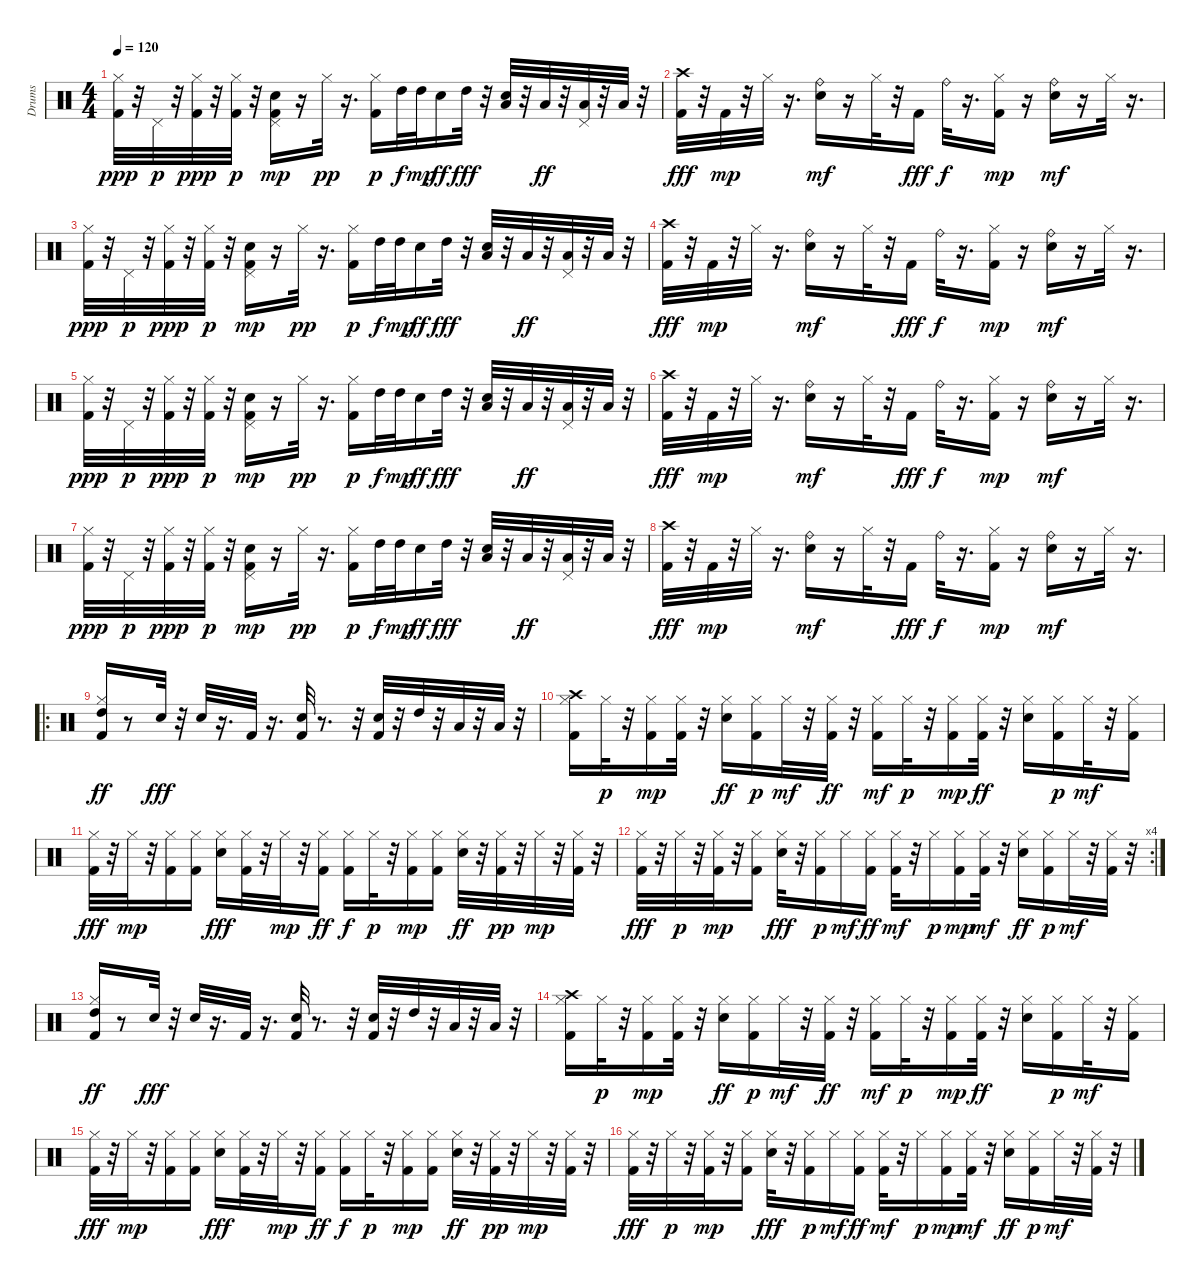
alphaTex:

\track ("Drums" "Drums") {instrument percussion}
\staff {score}
\articulation defaults
\ts (4 4)
\tempo 120
\clef neutral
\ks c
("Kick (hit) 2" "Hi-Hat (closed)").32{dy ppp} r.32 "Pedal Hi-Hat (hit)".32{dy p} r.32 ("Kick (hit) 2" "Hi-Hat (closed)").32{dy ppp} r.32 ("Kick (hit) 2" "Hi-Hat (closed)").32{dy p} r.32 ("Kick (hit) 2" "Snare (hit) 2" "Pedal Hi-Hat (hit)").16{dy mp} r.16 "Hi-Hat (closed)".32{dy pp} r.16{d} ("Kick (hit) 2" "Hi-Hat (closed)").16{dy p} "High Tom (hit)".32{dy f} "High Tom (hit)".32{dy mp} "Snare (hit) 2".16{dy ff} "High Tom (hit)".32{dy fff} r.32 ("Low Tom (hit)" "Snare (hit) 2").32 r.32 "Low Tom (hit)".32{dy ff} r.32 ("Pedal Hi-Hat (hit)" "Low Floor Tom (hit)").32 r.32 "Low Floor Tom (hit)".32 r.32 |
("Kick (hit) 2" "Crash high (hit)").32{dy fff} r.32 "Kick (hit) 2".32{dy mp} r.32 "Hi-Hat (closed)".32 r.16{d} ("Snare (hit) 2" "Ride (bell)").16{dy mf} r.16 "Hi-Hat (closed)".32 r.32 "Kick (hit) 2".16{dy fff} "Ride (bell)".32{dy f} r.16{d} ("Kick (hit) 2" "Hi-Hat (closed)").16{dy mp} r.16 ("Snare (hit) 2" "Ride (bell)").16{dy mf} r.16 "Hi-Hat (closed)".32 r.16{d} |
("Kick (hit) 2" "Hi-Hat (closed)").32{dy ppp} r.32 "Pedal Hi-Hat (hit)".32{dy p} r.32 ("Kick (hit) 2" "Hi-Hat (closed)").32{dy ppp} r.32 ("Kick (hit) 2" "Hi-Hat (closed)").32{dy p} r.32 ("Kick (hit) 2" "Snare (hit) 2" "Pedal Hi-Hat (hit)").16{dy mp} r.16 "Hi-Hat (closed)".32{dy pp} r.16{d} ("Kick (hit) 2" "Hi-Hat (closed)").16{dy p} "High Tom (hit)".32{dy f} "High Tom (hit)".32{dy mp} "Snare (hit) 2".16{dy ff} "High Tom (hit)".32{dy fff} r.32 ("Low Tom (hit)" "Snare (hit) 2").32 r.32 "Low Tom (hit)".32{dy ff} r.32 ("Pedal Hi-Hat (hit)" "Low Floor Tom (hit)").32 r.32 "Low Floor Tom (hit)".32 r.32 |
("Kick (hit) 2" "Crash high (hit)").32{dy fff} r.32 "Kick (hit) 2".32{dy mp} r.32 "Hi-Hat (closed)".32 r.16{d} ("Snare (hit) 2" "Ride (bell)").16{dy mf} r.16 "Hi-Hat (closed)".32 r.32 "Kick (hit) 2".16{dy fff} "Ride (bell)".32{dy f} r.16{d} ("Kick (hit) 2" "Hi-Hat (closed)").16{dy mp} r.16 ("Snare (hit) 2" "Ride (bell)").16{dy mf} r.16 "Hi-Hat (closed)".32 r.16{d} |
("Kick (hit) 2" "Hi-Hat (closed)").32{dy ppp} r.32 "Pedal Hi-Hat (hit)".32{dy p} r.32 ("Kick (hit) 2" "Hi-Hat (closed)").32{dy ppp} r.32 ("Kick (hit) 2" "Hi-Hat (closed)").32{dy p} r.32 ("Kick (hit) 2" "Snare (hit) 2" "Pedal Hi-Hat (hit)").16{dy mp} r.16 "Hi-Hat (closed)".32{dy pp} r.16{d} ("Kick (hit) 2" "Hi-Hat (closed)").16{dy p} "High Tom (hit)".32{dy f} "High Tom (hit)".32{dy mp} "Snare (hit) 2".16{dy ff} "High Tom (hit)".32{dy fff} r.32 ("Low Tom (hit)" "Snare (hit) 2").32 r.32 "Low Tom (hit)".32{dy ff} r.32 ("Pedal Hi-Hat (hit)" "Low Floor Tom (hit)").32 r.32 "Low Floor Tom (hit)".32 r.32 |
("Kick (hit) 2" "Crash high (hit)").32{dy fff} r.32 "Kick (hit) 2".32{dy mp} r.32 "Hi-Hat (closed)".32 r.16{d} ("Snare (hit) 2" "Ride (bell)").16{dy mf} r.16 "Hi-Hat (closed)".32 r.32 "Kick (hit) 2".16{dy fff} "Ride (bell)".32{dy f} r.16{d} ("Kick (hit) 2" "Hi-Hat (closed)").16{dy mp} r.16 ("Snare (hit) 2" "Ride (bell)").16{dy mf} r.16 "Hi-Hat (closed)".32 r.16{d} |
("Kick (hit) 2" "Hi-Hat (closed)").32{dy ppp} r.32 "Pedal Hi-Hat (hit)".32{dy p} r.32 ("Kick (hit) 2" "Hi-Hat (closed)").32{dy ppp} r.32 ("Kick (hit) 2" "Hi-Hat (closed)").32{dy p} r.32 ("Kick (hit) 2" "Snare (hit) 2" "Pedal Hi-Hat (hit)").16{dy mp} r.16 "Hi-Hat (closed)".32{dy pp} r.16{d} ("Kick (hit) 2" "Hi-Hat (closed)").16{dy p} "High Tom (hit)".32{dy f} "High Tom (hit)".32{dy mp} "Snare (hit) 2".16{dy ff} "High Tom (hit)".32{dy fff} r.32 ("Low Tom (hit)" "Snare (hit) 2").32 r.32 "Low Tom (hit)".32{dy ff} r.32 ("Pedal Hi-Hat (hit)" "Low Floor Tom (hit)").32 r.32 "Low Floor Tom (hit)".32 r.32 |
("Kick (hit) 2" "Crash high (hit)").32{dy fff} r.32 "Kick (hit) 2".32{dy mp} r.32 "Hi-Hat (closed)".32 r.16{d} ("Snare (hit) 2" "Ride (bell)").16{dy mf} r.16 "Hi-Hat (closed)".32 r.32 "Kick (hit) 2".16{dy fff} "Ride (bell)".32{dy f} r.16{d} ("Kick (hit) 2" "Hi-Hat (closed)").16{dy mp} r.16 ("Snare (hit) 2" "Ride (bell)").16{dy mf} r.16 "Hi-Hat (closed)".32 r.16{d} |
\ro
("High Tom (hit)" "Kick (hit) 2" "Hi-Hat (closed)").16{dy ff} r.8 "Snare (hit) 2".32{dy fff} r.32 "Snare (hit) 2".32 r.16{d} "Kick (hit) 2".32 r.16{d} ("Kick (hit) 2" "Snare (hit) 2").32 r.8{d} r.32 ("Kick (hit) 2" "Snare (hit) 2").32 r.32 "High Tom (hit)".32 r.32 "Low Tom (hit)".32 r.32 "Low Floor Tom (hit)".32 r.32 |
("Kick (hit) 2" "Hi-Hat (closed)" "Crash high (hit)").16 "Hi-Hat (closed)".32{dy p} r.32 ("Kick (hit) 2" "Hi-Hat (closed)").16{dy mp} ("Kick (hit) 2" "Hi-Hat (closed)").32 r.32 ("Hi-Hat (closed)" "Snare (hit) 2").16{dy ff} ("Kick (hit) 2" "Hi-Hat (closed)").16{dy p} "Hi-Hat (closed)".32{dy mf} r.32 ("Kick (hit) 2" "Hi-Hat (closed)").32{dy ff} r.32 ("Kick (hit) 2" "Hi-Hat (closed)").16{dy mf} "Hi-Hat (closed)".32{dy p} r.32 ("Kick (hit) 2" "Hi-Hat (closed)").16{dy mp} ("Kick (hit) 2" "Hi-Hat (closed)").32{dy ff} r.32 ("Hi-Hat (closed)" "Snare (hit) 2").16 ("Kick (hit) 2" "Hi-Hat (closed)").16{dy p} "Hi-Hat (closed)".32{dy mf} r.32 ("Kick (hit) 2" "Hi-Hat (closed)").16 |
("Hi-Hat (closed)" "Kick (hit) 2").32{dy fff} r.32 "Hi-Hat (closed)".32{dy mp} r.32 ("Kick (hit) 2" "Hi-Hat (closed)").16 ("Kick (hit) 2" "Hi-Hat (closed)").16 ("Hi-Hat (closed)" "Snare (hit) 2").16{dy fff} ("Hi-Hat (closed)" "Kick (hit) 2").32 r.32 "Hi-Hat (closed)".32{dy mp} r.32 ("Kick (hit) 2" "Hi-Hat (closed)").16{dy ff} ("Hi-Hat (closed)" "Kick (hit) 2").16{dy f} "Hi-Hat (closed)".32{dy p} r.32 ("Kick (hit) 2" "Hi-Hat (closed)").16{dy mp} ("Kick (hit) 2" "Hi-Hat (closed)").16 ("Hi-Hat (closed)" "Snare (hit) 2").32{dy ff} r.32 ("Kick (hit) 2" "Hi-Hat (closed)").32{dy pp} r.32 "Hi-Hat (closed)".32{dy mp} r.32 ("Kick (hit) 2" "Hi-Hat (closed)").32 r.32 |
\rc 4
("Hi-Hat (closed)" "Kick (hit) 2").32{dy fff} r.32 "Hi-Hat (closed)".32{dy p} r.32 ("Kick (hit) 2" "Hi-Hat (closed)").32{dy mp} r.32 ("Kick (hit) 2" "Hi-Hat (closed)").16 ("Hi-Hat (closed)" "Snare (hit) 2").32{dy fff} r.32 ("Kick (hit) 2" "Hi-Hat (closed)").16{dy p} "Hi-Hat (closed)".16{dy mf} ("Hi-Hat (closed)" "Kick (hit) 2").16{dy ff} ("Kick (hit) 2" "Hi-Hat (closed)").32{dy mf} r.32 "Hi-Hat (closed)".16{dy p} ("Kick (hit) 2" "Hi-Hat (closed)").16{dy mp} ("Hi-Hat (closed)" "Kick (hit) 2").32{dy mf} r.32 ("Hi-Hat (closed)" "Snare (hit) 2").16{dy ff} ("Kick (hit) 2" "Hi-Hat (closed)").16{dy p} "Hi-Hat (closed)".32{dy mf} r.32 ("Kick (hit) 2" "Hi-Hat (closed)").32 r.32 |
("High Tom (hit)" "Kick (hit) 2" "Hi-Hat (closed)").16{dy ff} r.8 "Snare (hit) 2".32{dy fff} r.32 "Snare (hit) 2".32 r.16{d} "Kick (hit) 2".32 r.16{d} ("Kick (hit) 2" "Snare (hit) 2").32 r.8{d} r.32 ("Kick (hit) 2" "Snare (hit) 2").32 r.32 "High Tom (hit)".32 r.32 "Low Tom (hit)".32 r.32 "Low Floor Tom (hit)".32 r.32 |
("Kick (hit) 2" "Hi-Hat (closed)" "Crash high (hit)").16 "Hi-Hat (closed)".32{dy p} r.32 ("Kick (hit) 2" "Hi-Hat (closed)").16{dy mp} ("Kick (hit) 2" "Hi-Hat (closed)").32 r.32 ("Hi-Hat (closed)" "Snare (hit) 2").16{dy ff} ("Kick (hit) 2" "Hi-Hat (closed)").16{dy p} "Hi-Hat (closed)".32{dy mf} r.32 ("Kick (hit) 2" "Hi-Hat (closed)").32{dy ff} r.32 ("Kick (hit) 2" "Hi-Hat (closed)").16{dy mf} "Hi-Hat (closed)".32{dy p} r.32 ("Kick (hit) 2" "Hi-Hat (closed)").16{dy mp} ("Kick (hit) 2" "Hi-Hat (closed)").32{dy ff} r.32 ("Hi-Hat (closed)" "Snare (hit) 2").16 ("Kick (hit) 2" "Hi-Hat (closed)").16{dy p} "Hi-Hat (closed)".32{dy mf} r.32 ("Kick (hit) 2" "Hi-Hat (closed)").16 |
("Hi-Hat (closed)" "Kick (hit) 2").32{dy fff} r.32 "Hi-Hat (closed)".32{dy mp} r.32 ("Kick (hit) 2" "Hi-Hat (closed)").16 ("Kick (hit) 2" "Hi-Hat (closed)").16 ("Hi-Hat (closed)" "Snare (hit) 2").16{dy fff} ("Hi-Hat (closed)" "Kick (hit) 2").32 r.32 "Hi-Hat (closed)".32{dy mp} r.32 ("Kick (hit) 2" "Hi-Hat (closed)").16{dy ff} ("Hi-Hat (closed)" "Kick (hit) 2").16{dy f} "Hi-Hat (closed)".32{dy p} r.32 ("Kick (hit) 2" "Hi-Hat (closed)").16{dy mp} ("Kick (hit) 2" "Hi-Hat (closed)").16 ("Hi-Hat (closed)" "Snare (hit) 2").32{dy ff} r.32 ("Kick (hit) 2" "Hi-Hat (closed)").32{dy pp} r.32 "Hi-Hat (closed)".32{dy mp} r.32 ("Kick (hit) 2" "Hi-Hat (closed)").32 r.32 |
("Hi-Hat (closed)" "Kick (hit) 2").32{dy fff} r.32 "Hi-Hat (closed)".32{dy p} r.32 ("Kick (hit) 2" "Hi-Hat (closed)").32{dy mp} r.32 ("Kick (hit) 2" "Hi-Hat (closed)").16 ("Hi-Hat (closed)" "Snare (hit) 2").32{dy fff} r.32 ("Kick (hit) 2" "Hi-Hat (closed)").16{dy p} "Hi-Hat (closed)".16{dy mf} ("Hi-Hat (closed)" "Kick (hit) 2").16{dy ff} ("Kick (hit) 2" "Hi-Hat (closed)").32{dy mf} r.32 "Hi-Hat (closed)".16{dy p} ("Kick (hit) 2" "Hi-Hat (closed)").16{dy mp} ("Hi-Hat (closed)" "Kick (hit) 2").32{dy mf} r.32 ("Hi-Hat (closed)" "Snare (hit) 2").16{dy ff} ("Kick (hit) 2" "Hi-Hat (closed)").16{dy p} "Hi-Hat (closed)".32{dy mf} r.32 ("Kick (hit) 2" "Hi-Hat (closed)").32 r.32
